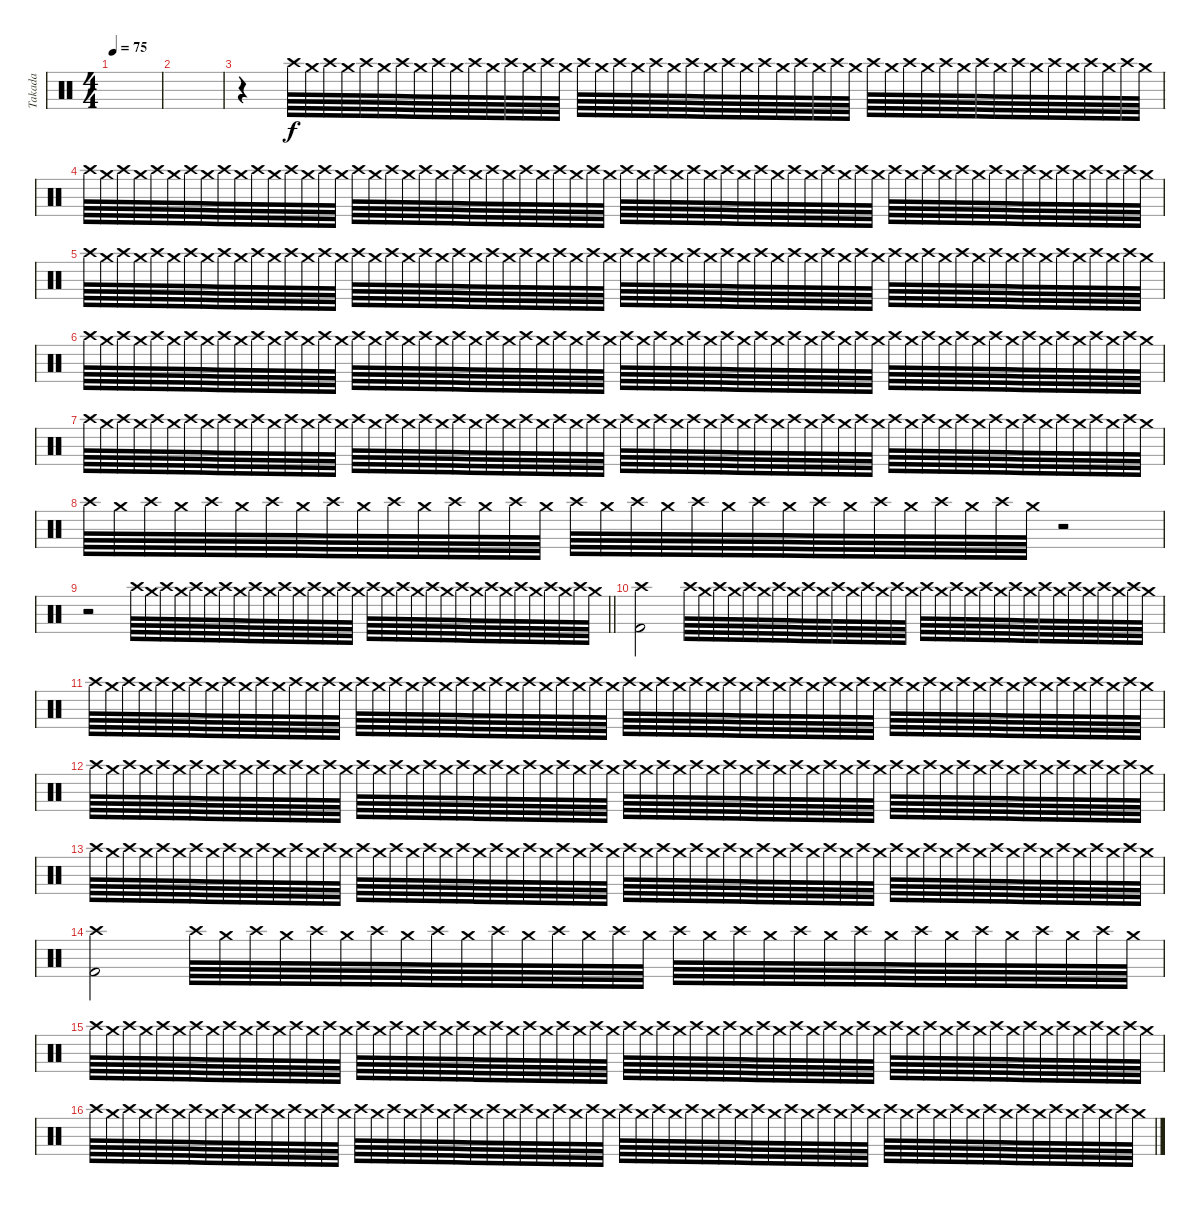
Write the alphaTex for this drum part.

\track ("Takada" "Takada") {instrument percussion}
\staff {score}
\articulation defaults
\ts (4 4)
\tempo 75
\clef neutral
\ks c
|
|
r.4{volume 0} "Crash high (hit)".64{dy f volume 9} "Crash medium (hit)".64 "Crash high (hit)".64 "Crash medium (hit)".64 "Crash high (hit)".64 "Crash medium (hit)".64 "Crash high (hit)".64 "Crash medium (hit)".64 "Crash high (hit)".64 "Crash medium (hit)".64 "Crash high (hit)".64 "Crash medium (hit)".64 "Crash high (hit)".64 "Crash medium (hit)".64 "Crash high (hit)".64 "Crash medium (hit)".64 "Crash high (hit)".64 "Crash medium (hit)".64 "Crash high (hit)".64 "Crash medium (hit)".64 "Crash high (hit)".64 "Crash medium (hit)".64 "Crash high (hit)".64 "Crash medium (hit)".64 "Crash high (hit)".64 "Crash medium (hit)".64 "Crash high (hit)".64 "Crash medium (hit)".64 "Crash high (hit)".64 "Crash medium (hit)".64 "Crash high (hit)".64 "Crash medium (hit)".64 "Crash high (hit)".64 "Crash medium (hit)".64 "Crash high (hit)".64 "Crash medium (hit)".64 "Crash high (hit)".64 "Crash medium (hit)".64 "Crash high (hit)".64 "Crash medium (hit)".64 "Crash high (hit)".64 "Crash medium (hit)".64 "Crash high (hit)".64 "Crash medium (hit)".64 "Crash high (hit)".64 "Crash medium (hit)".64 "Crash high (hit)".64 "Crash medium (hit)".64 |
"Crash high (hit)".64{volume 2} "Crash medium (hit)".64 "Crash high (hit)".64 "Crash medium (hit)".64 "Crash high (hit)".64 "Crash medium (hit)".64 "Crash high (hit)".64 "Crash medium (hit)".64 "Crash high (hit)".64 "Crash medium (hit)".64 "Crash high (hit)".64 "Crash medium (hit)".64 "Crash high (hit)".64 "Crash medium (hit)".64 "Crash high (hit)".64 "Crash medium (hit)".64 "Crash high (hit)".64 "Crash medium (hit)".64 "Crash high (hit)".64 "Crash medium (hit)".64 "Crash high (hit)".64 "Crash medium (hit)".64 "Crash high (hit)".64 "Crash medium (hit)".64 "Crash high (hit)".64 "Crash medium (hit)".64 "Crash high (hit)".64 "Crash medium (hit)".64 "Crash high (hit)".64 "Crash medium (hit)".64 "Crash high (hit)".64 "Crash medium (hit)".64 "Crash high (hit)".64{volume 8} "Crash medium (hit)".64 "Crash high (hit)".64 "Crash medium (hit)".64 "Crash high (hit)".64 "Crash medium (hit)".64 "Crash high (hit)".64 "Crash medium (hit)".64 "Crash high (hit)".64 "Crash medium (hit)".64 "Crash high (hit)".64 "Crash medium (hit)".64 "Crash high (hit)".64 "Crash medium (hit)".64 "Crash high (hit)".64 "Crash medium (hit)".64 "Crash high (hit)".64 "Crash medium (hit)".64 "Crash high (hit)".64 "Crash medium (hit)".64 "Crash high (hit)".64 "Crash medium (hit)".64 "Crash high (hit)".64 "Crash medium (hit)".64 "Crash high (hit)".64 "Crash medium (hit)".64 "Crash high (hit)".64 "Crash medium (hit)".64 "Crash high (hit)".64 "Crash medium (hit)".64 "Crash high (hit)".64 "Crash medium (hit)".64 |
"Crash high (hit)".64{volume 3} "Crash medium (hit)".64 "Crash high (hit)".64 "Crash medium (hit)".64 "Crash high (hit)".64 "Crash medium (hit)".64 "Crash high (hit)".64 "Crash medium (hit)".64 "Crash high (hit)".64 "Crash medium (hit)".64 "Crash high (hit)".64 "Crash medium (hit)".64 "Crash high (hit)".64 "Crash medium (hit)".64 "Crash high (hit)".64 "Crash medium (hit)".64 "Crash high (hit)".64 "Crash medium (hit)".64 "Crash high (hit)".64 "Crash medium (hit)".64 "Crash high (hit)".64 "Crash medium (hit)".64 "Crash high (hit)".64 "Crash medium (hit)".64 "Crash high (hit)".64 "Crash medium (hit)".64 "Crash high (hit)".64 "Crash medium (hit)".64 "Crash high (hit)".64 "Crash medium (hit)".64 "Crash high (hit)".64 "Crash medium (hit)".64 "Crash high (hit)".64{volume 8} "Crash medium (hit)".64 "Crash high (hit)".64 "Crash medium (hit)".64 "Crash high (hit)".64 "Crash medium (hit)".64 "Crash high (hit)".64 "Crash medium (hit)".64 "Crash high (hit)".64 "Crash medium (hit)".64 "Crash high (hit)".64 "Crash medium (hit)".64 "Crash high (hit)".64 "Crash medium (hit)".64 "Crash high (hit)".64 "Crash medium (hit)".64 "Crash high (hit)".64 "Crash medium (hit)".64 "Crash high (hit)".64 "Crash medium (hit)".64 "Crash high (hit)".64 "Crash medium (hit)".64 "Crash high (hit)".64 "Crash medium (hit)".64 "Crash high (hit)".64 "Crash medium (hit)".64 "Crash high (hit)".64 "Crash medium (hit)".64 "Crash high (hit)".64 "Crash medium (hit)".64 "Crash high (hit)".64 "Crash medium (hit)".64 |
"Crash high (hit)".64{volume 3} "Crash medium (hit)".64 "Crash high (hit)".64 "Crash medium (hit)".64 "Crash high (hit)".64 "Crash medium (hit)".64 "Crash high (hit)".64 "Crash medium (hit)".64 "Crash high (hit)".64 "Crash medium (hit)".64 "Crash high (hit)".64 "Crash medium (hit)".64 "Crash high (hit)".64 "Crash medium (hit)".64 "Crash high (hit)".64 "Crash medium (hit)".64 "Crash high (hit)".64 "Crash medium (hit)".64 "Crash high (hit)".64 "Crash medium (hit)".64 "Crash high (hit)".64 "Crash medium (hit)".64 "Crash high (hit)".64 "Crash medium (hit)".64 "Crash high (hit)".64 "Crash medium (hit)".64 "Crash high (hit)".64 "Crash medium (hit)".64 "Crash high (hit)".64 "Crash medium (hit)".64 "Crash high (hit)".64 "Crash medium (hit)".64 "Crash high (hit)".64{volume 2} "Crash medium (hit)".64 "Crash high (hit)".64 "Crash medium (hit)".64 "Crash high (hit)".64 "Crash medium (hit)".64 "Crash high (hit)".64 "Crash medium (hit)".64 "Crash high (hit)".64 "Crash medium (hit)".64 "Crash high (hit)".64 "Crash medium (hit)".64 "Crash high (hit)".64 "Crash medium (hit)".64 "Crash high (hit)".64 "Crash medium (hit)".64 "Crash high (hit)".64 "Crash medium (hit)".64 "Crash high (hit)".64 "Crash medium (hit)".64 "Crash high (hit)".64 "Crash medium (hit)".64 "Crash high (hit)".64 "Crash medium (hit)".64 "Crash high (hit)".64 "Crash medium (hit)".64 "Crash high (hit)".64 "Crash medium (hit)".64 "Crash high (hit)".64 "Crash medium (hit)".64 "Crash high (hit)".64 "Crash medium (hit)".64 |
"Crash high (hit)".64 "Crash medium (hit)".64 "Crash high (hit)".64 "Crash medium (hit)".64 "Crash high (hit)".64 "Crash medium (hit)".64 "Crash high (hit)".64 "Crash medium (hit)".64 "Crash high (hit)".64 "Crash medium (hit)".64 "Crash high (hit)".64 "Crash medium (hit)".64 "Crash high (hit)".64 "Crash medium (hit)".64 "Crash high (hit)".64 "Crash medium (hit)".64 "Crash high (hit)".64 "Crash medium (hit)".64 "Crash high (hit)".64 "Crash medium (hit)".64 "Crash high (hit)".64 "Crash medium (hit)".64 "Crash high (hit)".64 "Crash medium (hit)".64 "Crash high (hit)".64 "Crash medium (hit)".64 "Crash high (hit)".64 "Crash medium (hit)".64 "Crash high (hit)".64 "Crash medium (hit)".64 "Crash high (hit)".64 "Crash medium (hit)".64 "Crash high (hit)".64{volume 0} "Crash medium (hit)".64 "Crash high (hit)".64 "Crash medium (hit)".64 "Crash high (hit)".64 "Crash medium (hit)".64 "Crash high (hit)".64 "Crash medium (hit)".64 "Crash high (hit)".64 "Crash medium (hit)".64 "Crash high (hit)".64 "Crash medium (hit)".64 "Crash high (hit)".64 "Crash medium (hit)".64 "Crash high (hit)".64 "Crash medium (hit)".64 "Crash high (hit)".64 "Crash medium (hit)".64 "Crash high (hit)".64 "Crash medium (hit)".64 "Crash high (hit)".64 "Crash medium (hit)".64 "Crash high (hit)".64 "Crash medium (hit)".64 "Crash high (hit)".64 "Crash medium (hit)".64 "Crash high (hit)".64 "Crash medium (hit)".64 "Crash high (hit)".64 "Crash medium (hit)".64 "Crash high (hit)".64 "Crash medium (hit)".64 |
"Crash high (hit)".64 "Crash medium (hit)".64 "Crash high (hit)".64 "Crash medium (hit)".64 "Crash high (hit)".64 "Crash medium (hit)".64 "Crash high (hit)".64 "Crash medium (hit)".64 "Crash high (hit)".64 "Crash medium (hit)".64 "Crash high (hit)".64 "Crash medium (hit)".64 "Crash high (hit)".64 "Crash medium (hit)".64 "Crash high (hit)".64 "Crash medium (hit)".64 "Crash high (hit)".64 "Crash medium (hit)".64 "Crash high (hit)".64 "Crash medium (hit)".64 "Crash high (hit)".64 "Crash medium (hit)".64 "Crash high (hit)".64 "Crash medium (hit)".64 "Crash high (hit)".64 "Crash medium (hit)".64 "Crash high (hit)".64 "Crash medium (hit)".64 "Crash high (hit)".64 "Crash medium (hit)".64 "Crash high (hit)".64 "Crash medium (hit)".64 r.2 |
\barLineRight lightlight
r.2{volume 0} "Crash high (hit)".64{volume 12} "Crash medium (hit)".64 "Crash high (hit)".64 "Crash medium (hit)".64 "Crash high (hit)".64 "Crash medium (hit)".64 "Crash high (hit)".64 "Crash medium (hit)".64 "Crash high (hit)".64 "Crash medium (hit)".64 "Crash high (hit)".64 "Crash medium (hit)".64 "Crash high (hit)".64 "Crash medium (hit)".64 "Crash high (hit)".64 "Crash medium (hit)".64 "Crash high (hit)".64 "Crash medium (hit)".64 "Crash high (hit)".64 "Crash medium (hit)".64 "Crash high (hit)".64 "Crash medium (hit)".64 "Crash high (hit)".64 "Crash medium (hit)".64 "Crash high (hit)".64 "Crash medium (hit)".64 "Crash high (hit)".64 "Crash medium (hit)".64 "Crash high (hit)".64 "Crash medium (hit)".64 "Crash high (hit)".64 "Crash medium (hit)".64 |
\section ("" "")
("Crash high (hit)" "Kick (hit) 2").2{volume 14} "Crash high (hit)".64{volume 0} "Crash medium (hit)".64{volume 7} "Crash high (hit)".64 "Crash medium (hit)".64 "Crash high (hit)".64 "Crash medium (hit)".64 "Crash high (hit)".64 "Crash medium (hit)".64 "Crash high (hit)".64 "Crash medium (hit)".64 "Crash high (hit)".64 "Crash medium (hit)".64 "Crash high (hit)".64 "Crash medium (hit)".64 "Crash high (hit)".64 "Crash medium (hit)".64 "Crash high (hit)".64 "Crash medium (hit)".64 "Crash high (hit)".64 "Crash medium (hit)".64 "Crash high (hit)".64 "Crash medium (hit)".64 "Crash high (hit)".64 "Crash medium (hit)".64 "Crash high (hit)".64 "Crash medium (hit)".64 "Crash high (hit)".64 "Crash medium (hit)".64 "Crash high (hit)".64 "Crash medium (hit)".64 "Crash high (hit)".64 "Crash medium (hit)".64 |
"Crash high (hit)".64 "Crash medium (hit)".64 "Crash high (hit)".64 "Crash medium (hit)".64 "Crash high (hit)".64 "Crash medium (hit)".64 "Crash high (hit)".64 "Crash medium (hit)".64 "Crash high (hit)".64 "Crash medium (hit)".64 "Crash high (hit)".64 "Crash medium (hit)".64 "Crash high (hit)".64 "Crash medium (hit)".64 "Crash high (hit)".64 "Crash medium (hit)".64 "Crash high (hit)".64 "Crash medium (hit)".64 "Crash high (hit)".64 "Crash medium (hit)".64 "Crash high (hit)".64 "Crash medium (hit)".64 "Crash high (hit)".64 "Crash medium (hit)".64 "Crash high (hit)".64 "Crash medium (hit)".64 "Crash high (hit)".64 "Crash medium (hit)".64 "Crash high (hit)".64 "Crash medium (hit)".64 "Crash high (hit)".64 "Crash medium (hit)".64 "Crash high (hit)".64 "Crash medium (hit)".64 "Crash high (hit)".64 "Crash medium (hit)".64 "Crash high (hit)".64 "Crash medium (hit)".64 "Crash high (hit)".64 "Crash medium (hit)".64 "Crash high (hit)".64 "Crash medium (hit)".64 "Crash high (hit)".64 "Crash medium (hit)".64 "Crash high (hit)".64 "Crash medium (hit)".64 "Crash high (hit)".64 "Crash medium (hit)".64 "Crash high (hit)".64 "Crash medium (hit)".64 "Crash high (hit)".64 "Crash medium (hit)".64 "Crash high (hit)".64 "Crash medium (hit)".64 "Crash high (hit)".64 "Crash medium (hit)".64 "Crash high (hit)".64 "Crash medium (hit)".64 "Crash high (hit)".64 "Crash medium (hit)".64 "Crash high (hit)".64 "Crash medium (hit)".64 "Crash high (hit)".64 "Crash medium (hit)".64 |
"Crash high (hit)".64 "Crash medium (hit)".64 "Crash high (hit)".64 "Crash medium (hit)".64 "Crash high (hit)".64 "Crash medium (hit)".64 "Crash high (hit)".64 "Crash medium (hit)".64 "Crash high (hit)".64{volume 3} "Crash medium (hit)".64 "Crash high (hit)".64 "Crash medium (hit)".64 "Crash high (hit)".64 "Crash medium (hit)".64 "Crash high (hit)".64 "Crash medium (hit)".64 "Crash high (hit)".64 "Crash medium (hit)".64 "Crash high (hit)".64 "Crash medium (hit)".64 "Crash high (hit)".64 "Crash medium (hit)".64 "Crash high (hit)".64 "Crash medium (hit)".64 "Crash high (hit)".64 "Crash medium (hit)".64 "Crash high (hit)".64 "Crash medium (hit)".64 "Crash high (hit)".64 "Crash medium (hit)".64 "Crash high (hit)".64 "Crash medium (hit)".64 "Crash high (hit)".64 "Crash medium (hit)".64 "Crash high (hit)".64 "Crash medium (hit)".64 "Crash high (hit)".64 "Crash medium (hit)".64 "Crash high (hit)".64 "Crash medium (hit)".64 "Crash high (hit)".64 "Crash medium (hit)".64 "Crash high (hit)".64 "Crash medium (hit)".64 "Crash high (hit)".64 "Crash medium (hit)".64 "Crash high (hit)".64 "Crash medium (hit)".64 "Crash high (hit)".64 "Crash medium (hit)".64 "Crash high (hit)".64 "Crash medium (hit)".64 "Crash high (hit)".64 "Crash medium (hit)".64 "Crash high (hit)".64 "Crash medium (hit)".64 "Crash high (hit)".64 "Crash medium (hit)".64 "Crash high (hit)".64 "Crash medium (hit)".64 "Crash high (hit)".64 "Crash medium (hit)".64 "Crash high (hit)".64 "Crash medium (hit)".64 |
"Crash high (hit)".64 "Crash medium (hit)".64 "Crash high (hit)".64 "Crash medium (hit)".64 "Crash high (hit)".64 "Crash medium (hit)".64 "Crash high (hit)".64 "Crash medium (hit)".64 "Crash high (hit)".64 "Crash medium (hit)".64 "Crash high (hit)".64 "Crash medium (hit)".64 "Crash high (hit)".64 "Crash medium (hit)".64 "Crash high (hit)".64 "Crash medium (hit)".64 "Crash high (hit)".64{volume 11} "Crash medium (hit)".64 "Crash high (hit)".64 "Crash medium (hit)".64 "Crash high (hit)".64 "Crash medium (hit)".64 "Crash high (hit)".64 "Crash medium (hit)".64 "Crash high (hit)".64 "Crash medium (hit)".64 "Crash high (hit)".64 "Crash medium (hit)".64 "Crash high (hit)".64 "Crash medium (hit)".64 "Crash high (hit)".64 "Crash medium (hit)".64 "Crash high (hit)".64 "Crash medium (hit)".64 "Crash high (hit)".64 "Crash medium (hit)".64 "Crash high (hit)".64 "Crash medium (hit)".64 "Crash high (hit)".64 "Crash medium (hit)".64 "Crash high (hit)".64 "Crash medium (hit)".64 "Crash high (hit)".64 "Crash medium (hit)".64 "Crash high (hit)".64 "Crash medium (hit)".64 "Crash high (hit)".64 "Crash medium (hit)".64 "Crash high (hit)".64 "Crash medium (hit)".64 "Crash high (hit)".64 "Crash medium (hit)".64 "Crash high (hit)".64 "Crash medium (hit)".64 "Crash high (hit)".64 "Crash medium (hit)".64 "Crash high (hit)".64 "Crash medium (hit)".64 "Crash high (hit)".64 "Crash medium (hit)".64 "Crash high (hit)".64 "Crash medium (hit)".64 "Crash high (hit)".64 "Crash medium (hit)".64 |
("Crash high (hit)" "Kick (hit) 2").2{volume 14} "Crash high (hit)".64{volume 0} "Crash medium (hit)".64{volume 7} "Crash high (hit)".64 "Crash medium (hit)".64 "Crash high (hit)".64 "Crash medium (hit)".64 "Crash high (hit)".64 "Crash medium (hit)".64 "Crash high (hit)".64 "Crash medium (hit)".64 "Crash high (hit)".64 "Crash medium (hit)".64 "Crash high (hit)".64 "Crash medium (hit)".64 "Crash high (hit)".64 "Crash medium (hit)".64 "Crash high (hit)".64 "Crash medium (hit)".64 "Crash high (hit)".64 "Crash medium (hit)".64 "Crash high (hit)".64 "Crash medium (hit)".64 "Crash high (hit)".64 "Crash medium (hit)".64 "Crash high (hit)".64 "Crash medium (hit)".64 "Crash high (hit)".64 "Crash medium (hit)".64 "Crash high (hit)".64 "Crash medium (hit)".64 "Crash high (hit)".64 "Crash medium (hit)".64 |
"Crash high (hit)".64 "Crash medium (hit)".64 "Crash high (hit)".64 "Crash medium (hit)".64 "Crash high (hit)".64 "Crash medium (hit)".64 "Crash high (hit)".64 "Crash medium (hit)".64 "Crash high (hit)".64 "Crash medium (hit)".64 "Crash high (hit)".64 "Crash medium (hit)".64 "Crash high (hit)".64 "Crash medium (hit)".64 "Crash high (hit)".64 "Crash medium (hit)".64 "Crash high (hit)".64 "Crash medium (hit)".64 "Crash high (hit)".64 "Crash medium (hit)".64 "Crash high (hit)".64 "Crash medium (hit)".64 "Crash high (hit)".64 "Crash medium (hit)".64 "Crash high (hit)".64 "Crash medium (hit)".64 "Crash high (hit)".64 "Crash medium (hit)".64 "Crash high (hit)".64 "Crash medium (hit)".64 "Crash high (hit)".64 "Crash medium (hit)".64 "Crash high (hit)".64 "Crash medium (hit)".64 "Crash high (hit)".64 "Crash medium (hit)".64 "Crash high (hit)".64 "Crash medium (hit)".64 "Crash high (hit)".64 "Crash medium (hit)".64 "Crash high (hit)".64 "Crash medium (hit)".64 "Crash high (hit)".64 "Crash medium (hit)".64 "Crash high (hit)".64 "Crash medium (hit)".64 "Crash high (hit)".64 "Crash medium (hit)".64 "Crash high (hit)".64 "Crash medium (hit)".64 "Crash high (hit)".64 "Crash medium (hit)".64 "Crash high (hit)".64 "Crash medium (hit)".64 "Crash high (hit)".64 "Crash medium (hit)".64 "Crash high (hit)".64 "Crash medium (hit)".64 "Crash high (hit)".64 "Crash medium (hit)".64 "Crash high (hit)".64 "Crash medium (hit)".64 "Crash high (hit)".64 "Crash medium (hit)".64 |
"Crash high (hit)".64 "Crash medium (hit)".64 "Crash high (hit)".64 "Crash medium (hit)".64 "Crash high (hit)".64 "Crash medium (hit)".64 "Crash high (hit)".64 "Crash medium (hit)".64 "Crash high (hit)".64{volume 2} "Crash medium (hit)".64 "Crash high (hit)".64 "Crash medium (hit)".64 "Crash high (hit)".64 "Crash medium (hit)".64 "Crash high (hit)".64 "Crash medium (hit)".64 "Crash high (hit)".64 "Crash medium (hit)".64 "Crash high (hit)".64 "Crash medium (hit)".64 "Crash high (hit)".64 "Crash medium (hit)".64 "Crash high (hit)".64 "Crash medium (hit)".64 "Crash high (hit)".64 "Crash medium (hit)".64 "Crash high (hit)".64 "Crash medium (hit)".64 "Crash high (hit)".64 "Crash medium (hit)".64 "Crash high (hit)".64 "Crash medium (hit)".64 "Crash high (hit)".64 "Crash medium (hit)".64 "Crash high (hit)".64 "Crash medium (hit)".64 "Crash high (hit)".64 "Crash medium (hit)".64 "Crash high (hit)".64 "Crash medium (hit)".64 "Crash high (hit)".64 "Crash medium (hit)".64{volume 14} "Crash high (hit)".64 "Crash medium (hit)".64 "Crash high (hit)".64 "Crash medium (hit)".64 "Crash high (hit)".64 "Crash medium (hit)".64 "Crash high (hit)".64 "Crash medium (hit)".64 "Crash high (hit)".64 "Crash medium (hit)".64 "Crash high (hit)".64 "Crash medium (hit)".64 "Crash high (hit)".64 "Crash medium (hit)".64 "Crash high (hit)".64 "Crash medium (hit)".64 "Crash high (hit)".64 "Crash medium (hit)".64 "Crash high (hit)".64 "Crash medium (hit)".64 "Crash high (hit)".64 "Crash medium (hit)".64
